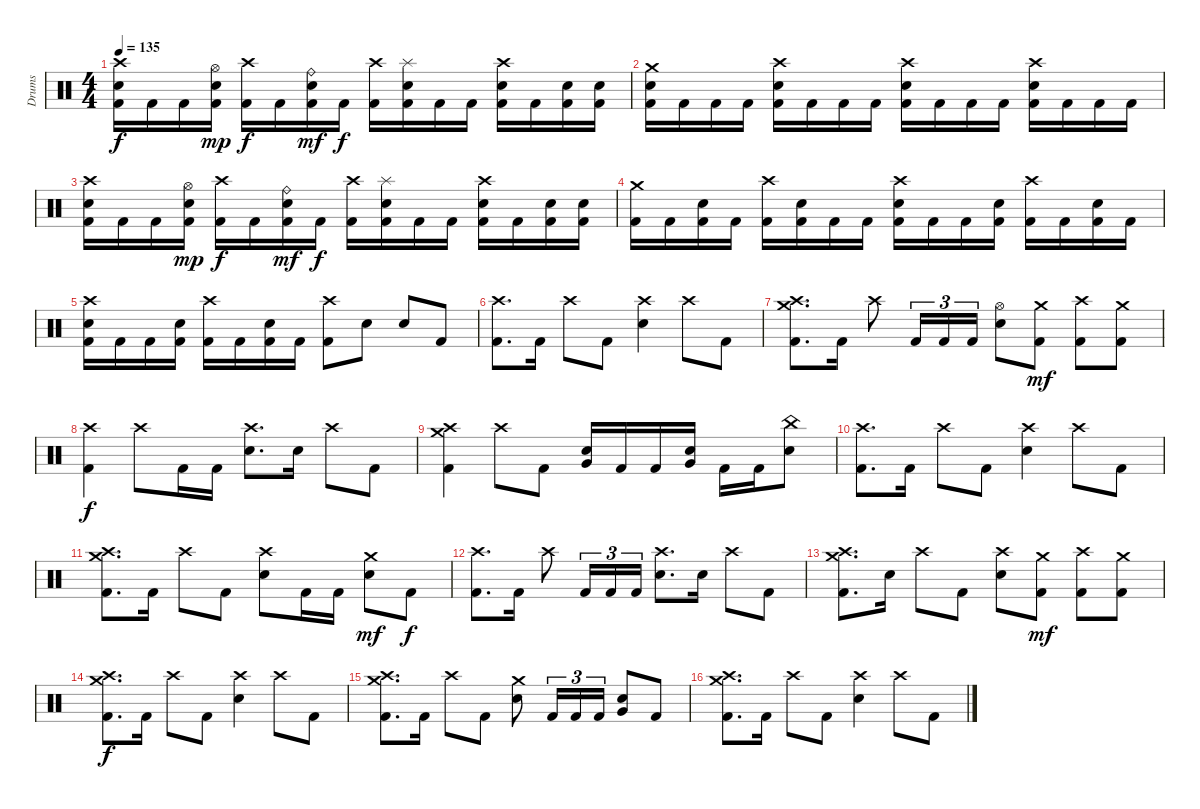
\track ("Drums" "Drums") {instrument percussion}
\staff {score}
\articulation defaults
\ts (4 4)
\tempo 135
\clef neutral
\ks c
("Crash high (hit)" "Electric Snare (hit)" "Kick (hit) 2").16{dy f} "Kick (hit) 2".16 "Kick (hit) 2".16 ("Hi-Hat (open)" "Electric Snare (hit)" "Kick (hit) 2").16{dy mp} ("Crash high (hit)" "Kick (hit) 2").16{dy f} "Kick (hit) 2".16 ("Ride (bell)" "Electric Snare (hit)" "Kick (hit) 2").16{dy mf} "Kick (hit) 2".16{dy f} ("Crash high (hit)" "Kick (hit) 2").16 ("Splash (hit)" "Electric Snare (hit)" "Kick (hit) 2").16 "Kick (hit) 2".16 "Kick (hit) 2".16 ("Crash high (hit)" "Electric Snare (hit)" "Kick (hit) 2").16 "Kick (hit) 2".16 ("Electric Snare (hit)" "Kick (hit) 2").16 ("Electric Snare (hit)" "Kick (hit) 2").16 |
("Crash medium (hit)" "Electric Snare (hit)" "Kick (hit) 2").16 "Kick (hit) 2".16 "Kick (hit) 2".16 "Kick (hit) 2".16 ("Crash high (hit)" "Electric Snare (hit)" "Kick (hit) 2").16 "Kick (hit) 2".16 "Kick (hit) 2".16 "Kick (hit) 2".16 ("Crash high (hit)" "Electric Snare (hit)" "Kick (hit) 2").16 "Kick (hit) 2".16 "Kick (hit) 2".16 "Kick (hit) 2".16 ("Crash high (hit)" "Electric Snare (hit)" "Kick (hit) 2").16 "Kick (hit) 2".16 "Kick (hit) 2".16 "Kick (hit) 2".16 |
("Crash high (hit)" "Electric Snare (hit)" "Kick (hit) 2").16 "Kick (hit) 2".16 "Kick (hit) 2".16 ("Hi-Hat (open)" "Electric Snare (hit)" "Kick (hit) 2").16{dy mp} ("Crash high (hit)" "Kick (hit) 2").16{dy f} "Kick (hit) 2".16 ("Ride (bell)" "Electric Snare (hit)" "Kick (hit) 2").16{dy mf} "Kick (hit) 2".16{dy f} ("Crash high (hit)" "Kick (hit) 2").16 ("Splash (hit)" "Electric Snare (hit)" "Kick (hit) 2").16 "Kick (hit) 2".16 "Kick (hit) 2".16 ("Crash high (hit)" "Electric Snare (hit)" "Kick (hit) 2").16 "Kick (hit) 2".16 ("Electric Snare (hit)" "Kick (hit) 2").16 ("Electric Snare (hit)" "Kick (hit) 2").16 |
("Crash medium (hit)" "Kick (hit) 2").16 "Kick (hit) 2".16 ("Electric Snare (hit)" "Kick (hit) 2").16 "Kick (hit) 2".16 ("Crash high (hit)" "Kick (hit) 2").16 ("Electric Snare (hit)" "Kick (hit) 2").16 "Kick (hit) 2".16 "Kick (hit) 2".16 ("Crash high (hit)" "Electric Snare (hit)" "Kick (hit) 2").16 "Kick (hit) 2".16 "Kick (hit) 2".16 ("Electric Snare (hit)" "Kick (hit) 2").16 ("Crash high (hit)" "Kick (hit) 2").16 "Kick (hit) 2".16 ("Electric Snare (hit)" "Kick (hit) 2").16 "Kick (hit) 2".16 |
("Crash high (hit)" "Electric Snare (hit)" "Kick (hit) 2").16 "Kick (hit) 2".16 "Kick (hit) 2".16 ("Electric Snare (hit)" "Kick (hit) 2").16 ("Crash high (hit)" "Kick (hit) 2").16 "Kick (hit) 2".16 ("Electric Snare (hit)" "Kick (hit) 2").16 "Kick (hit) 2".16 ("Crash high (hit)" "Kick (hit) 2").8 "Electric Snare (hit)".8 "Electric Snare (hit)".8 "Kick (hit) 2".8 |
("Crash high (hit)" "Kick (hit) 2").8{d} "Kick (hit) 2".16 "Crash high (hit)".8 "Kick (hit) 2".8 ("Crash high (hit)" "Electric Snare (hit)").4 "Crash high (hit)".8 "Kick (hit) 2".8 |
("Crash high (hit)" "Crash medium (hit)" "Kick (hit) 2").8{d} "Kick (hit) 2".16 "Crash high (hit)".8 "Kick (hit) 2".16{tu (3 2)} "Kick (hit) 2".16{tu (3 2)} "Kick (hit) 2".16{tu (3 2)} ("Hi-Hat (open)" "Electric Snare (hit)").8 ("Crash medium (hit)" "Kick (hit) 2").8{dy mf} ("Crash high (hit)" "Kick (hit) 2").8 ("Crash medium (hit)" "Kick (hit) 2").8 |
("Crash high (hit)" "Kick (hit) 2").4{dy f} "Crash high (hit)".8 "Kick (hit) 2".16 "Kick (hit) 2".16 ("Crash high (hit)" "Electric Snare (hit)").8{d} "Electric Snare (hit)".16 "Crash high (hit)".8 "Kick (hit) 2".8 |
("Crash high (hit)" "Crash medium (hit)" "Kick (hit) 2").4 "Crash high (hit)".8 "Kick (hit) 2".8 ("Very Low Tom (hit)" "Electric Snare (hit)").16 "Kick (hit) 2".16 "Kick (hit) 2".16 ("Very Low Tom (hit)" "Electric Snare (hit)").16 "Kick (hit) 2".16 "Kick (hit) 2".16 ("China (hit)" "Electric Snare (hit)").8 |
("Crash high (hit)" "Kick (hit) 2").8{d} "Kick (hit) 2".16 "Crash high (hit)".8 "Kick (hit) 2".8 ("Crash high (hit)" "Electric Snare (hit)").4 "Crash high (hit)".8 "Kick (hit) 2".8 |
("Crash high (hit)" "Crash medium (hit)" "Kick (hit) 2").8{d} "Kick (hit) 2".16 "Crash high (hit)".8 "Kick (hit) 2".8 ("Crash high (hit)" "Electric Snare (hit)").8 "Kick (hit) 2".16 "Kick (hit) 2".16 ("Crash medium (hit)" "Electric Snare (hit)").8{dy mf} "Kick (hit) 2".8{dy f} |
("Crash high (hit)" "Kick (hit) 2").8{d} "Kick (hit) 2".16 "Crash high (hit)".8 "Kick (hit) 2".16{tu (3 2)} "Kick (hit) 2".16{tu (3 2)} "Kick (hit) 2".16{tu (3 2)} ("Crash high (hit)" "Electric Snare (hit)").8{d} "Electric Snare (hit)".16 "Crash high (hit)".8 "Kick (hit) 2".8 |
("Crash high (hit)" "Crash medium (hit)" "Kick (hit) 2").8{d} "Electric Snare (hit)".16 "Crash high (hit)".8 "Kick (hit) 2".8 ("Crash high (hit)" "Electric Snare (hit)").8 ("Crash medium (hit)" "Kick (hit) 2").8{dy mf} ("Crash high (hit)" "Kick (hit) 2").8 ("Crash medium (hit)" "Kick (hit) 2").8 |
("Crash high (hit)" "Crash medium (hit)" "Kick (hit) 2").8{d dy f} "Kick (hit) 2".16 "Crash high (hit)".8 "Kick (hit) 2".8 ("Crash high (hit)" "Electric Snare (hit)").4 "Crash high (hit)".8 "Kick (hit) 2".8 |
("Crash high (hit)" "Crash medium (hit)" "Kick (hit) 2").8{d} "Kick (hit) 2".16 "Crash high (hit)".8 "Kick (hit) 2".8 ("Crash medium (hit)" "Electric Snare (hit)").8 "Kick (hit) 2".16{tu (3 2)} "Kick (hit) 2".16{tu (3 2)} "Kick (hit) 2".16{tu (3 2)} ("Very Low Tom (hit)" "Electric Snare (hit)").8 "Kick (hit) 2".8 |
("Crash high (hit)" "Crash medium (hit)" "Kick (hit) 2").8{d} "Kick (hit) 2".16 "Crash high (hit)".8 "Kick (hit) 2".8 ("Crash high (hit)" "Electric Snare (hit)").4 "Crash high (hit)".8 "Kick (hit) 2".8
